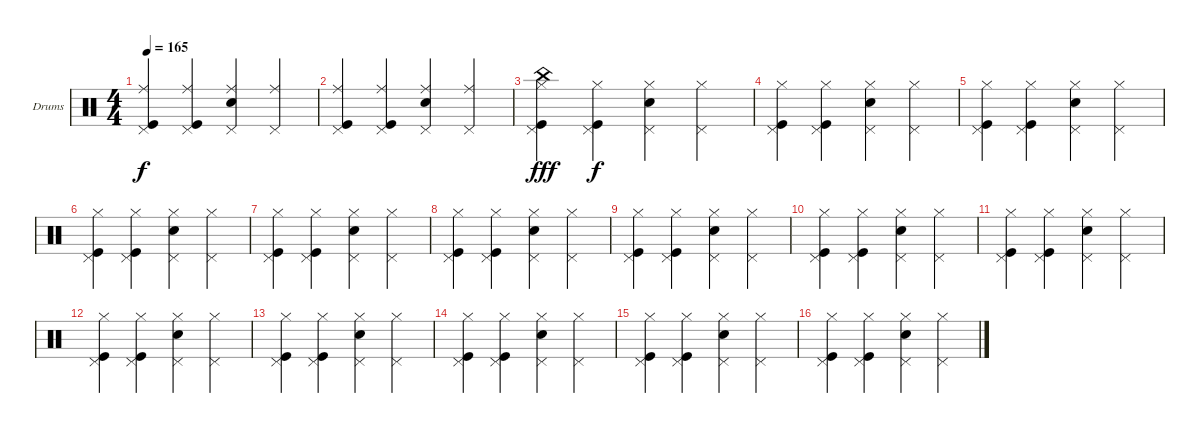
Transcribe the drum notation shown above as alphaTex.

\bracketExtendMode groupsimilarinstruments
\firstSystemTrackNameOrientation horizontal
\otherSystemsTrackNameOrientation horizontal
\track ("Drumkit" "Drums") {instrument percussion}
\staff {score}
\articulation defaults
\ts (4 4)
\tempo 165
\clef neutral
\ks c
("Pedal Hi-Hat (hit)" "Kick (hit)" "Ride (middle)").4{dy f} ("Pedal Hi-Hat (hit)" "Kick (hit)" "Ride (middle)").4 ("Pedal Hi-Hat (hit)" "Snare (hit) 2" "Ride (middle)").4 ("Pedal Hi-Hat (hit)" "Ride (middle)").4 |
("Pedal Hi-Hat (hit)" "Kick (hit)" "Ride (middle)").4 ("Pedal Hi-Hat (hit)" "Kick (hit)" "Ride (middle)").4 ("Pedal Hi-Hat (hit)" "Snare (hit) 2" "Ride (middle)").4 ("Pedal Hi-Hat (hit)" "Ride (middle)").4 |
("Kick (hit)" "Pedal Hi-Hat (hit)" "China (hit)" "Hi-Hat (closed)").4{dy fff} ("Pedal Hi-Hat (hit)" "Kick (hit)" "Hi-Hat (closed)").4{dy f} ("Pedal Hi-Hat (hit)" "Snare (hit) 2" "Hi-Hat (closed)").4 ("Pedal Hi-Hat (hit)" "Hi-Hat (closed)").4 |
("Pedal Hi-Hat (hit)" "Kick (hit)" "Hi-Hat (closed)").4 ("Pedal Hi-Hat (hit)" "Kick (hit)" "Hi-Hat (closed)").4 ("Pedal Hi-Hat (hit)" "Snare (hit) 2" "Hi-Hat (closed)").4 ("Pedal Hi-Hat (hit)" "Hi-Hat (closed)").4 |
("Pedal Hi-Hat (hit)" "Kick (hit)" "Hi-Hat (closed)").4 ("Pedal Hi-Hat (hit)" "Kick (hit)" "Hi-Hat (closed)").4 ("Pedal Hi-Hat (hit)" "Snare (hit) 2" "Hi-Hat (closed)").4 ("Pedal Hi-Hat (hit)" "Hi-Hat (closed)").4 |
("Pedal Hi-Hat (hit)" "Kick (hit)" "Hi-Hat (closed)").4 ("Pedal Hi-Hat (hit)" "Kick (hit)" "Hi-Hat (closed)").4 ("Pedal Hi-Hat (hit)" "Snare (hit) 2" "Hi-Hat (closed)").4 ("Pedal Hi-Hat (hit)" "Hi-Hat (closed)").4 |
("Pedal Hi-Hat (hit)" "Kick (hit)" "Hi-Hat (closed)").4 ("Pedal Hi-Hat (hit)" "Kick (hit)" "Hi-Hat (closed)").4 ("Pedal Hi-Hat (hit)" "Snare (hit) 2" "Hi-Hat (closed)").4 ("Pedal Hi-Hat (hit)" "Hi-Hat (closed)").4 |
("Pedal Hi-Hat (hit)" "Kick (hit)" "Hi-Hat (closed)").4 ("Pedal Hi-Hat (hit)" "Kick (hit)" "Hi-Hat (closed)").4 ("Pedal Hi-Hat (hit)" "Snare (hit) 2" "Hi-Hat (closed)").4 ("Pedal Hi-Hat (hit)" "Hi-Hat (closed)").4 |
("Pedal Hi-Hat (hit)" "Kick (hit)" "Hi-Hat (closed)").4 ("Pedal Hi-Hat (hit)" "Kick (hit)" "Hi-Hat (closed)").4 ("Pedal Hi-Hat (hit)" "Snare (hit) 2" "Hi-Hat (closed)").4 ("Pedal Hi-Hat (hit)" "Hi-Hat (closed)").4 |
("Pedal Hi-Hat (hit)" "Kick (hit)" "Hi-Hat (closed)").4 ("Pedal Hi-Hat (hit)" "Kick (hit)" "Hi-Hat (closed)").4 ("Pedal Hi-Hat (hit)" "Snare (hit) 2" "Hi-Hat (closed)").4 ("Pedal Hi-Hat (hit)" "Hi-Hat (closed)").4 |
("Pedal Hi-Hat (hit)" "Kick (hit)" "Hi-Hat (closed)").4 ("Pedal Hi-Hat (hit)" "Kick (hit)" "Hi-Hat (closed)").4 ("Pedal Hi-Hat (hit)" "Snare (hit) 2" "Hi-Hat (closed)").4 ("Pedal Hi-Hat (hit)" "Hi-Hat (closed)").4 |
("Pedal Hi-Hat (hit)" "Kick (hit)" "Hi-Hat (closed)").4 ("Pedal Hi-Hat (hit)" "Kick (hit)" "Hi-Hat (closed)").4 ("Pedal Hi-Hat (hit)" "Snare (hit) 2" "Hi-Hat (closed)").4 ("Pedal Hi-Hat (hit)" "Hi-Hat (closed)").4 |
("Pedal Hi-Hat (hit)" "Kick (hit)" "Hi-Hat (closed)").4 ("Pedal Hi-Hat (hit)" "Kick (hit)" "Hi-Hat (closed)").4 ("Pedal Hi-Hat (hit)" "Snare (hit) 2" "Hi-Hat (closed)").4 ("Pedal Hi-Hat (hit)" "Hi-Hat (closed)").4 |
("Pedal Hi-Hat (hit)" "Kick (hit)" "Hi-Hat (closed)").4 ("Pedal Hi-Hat (hit)" "Kick (hit)" "Hi-Hat (closed)").4 ("Pedal Hi-Hat (hit)" "Snare (hit) 2" "Hi-Hat (closed)").4 ("Pedal Hi-Hat (hit)" "Hi-Hat (closed)").4 |
("Pedal Hi-Hat (hit)" "Kick (hit)" "Hi-Hat (closed)").4 ("Pedal Hi-Hat (hit)" "Kick (hit)" "Hi-Hat (closed)").4 ("Pedal Hi-Hat (hit)" "Snare (hit) 2" "Hi-Hat (closed)").4 ("Pedal Hi-Hat (hit)" "Hi-Hat (closed)").4 |
("Pedal Hi-Hat (hit)" "Kick (hit)" "Hi-Hat (closed)").4 ("Pedal Hi-Hat (hit)" "Kick (hit)" "Hi-Hat (closed)").4 ("Pedal Hi-Hat (hit)" "Snare (hit) 2" "Hi-Hat (closed)").4 ("Pedal Hi-Hat (hit)" "Hi-Hat (closed)").4
